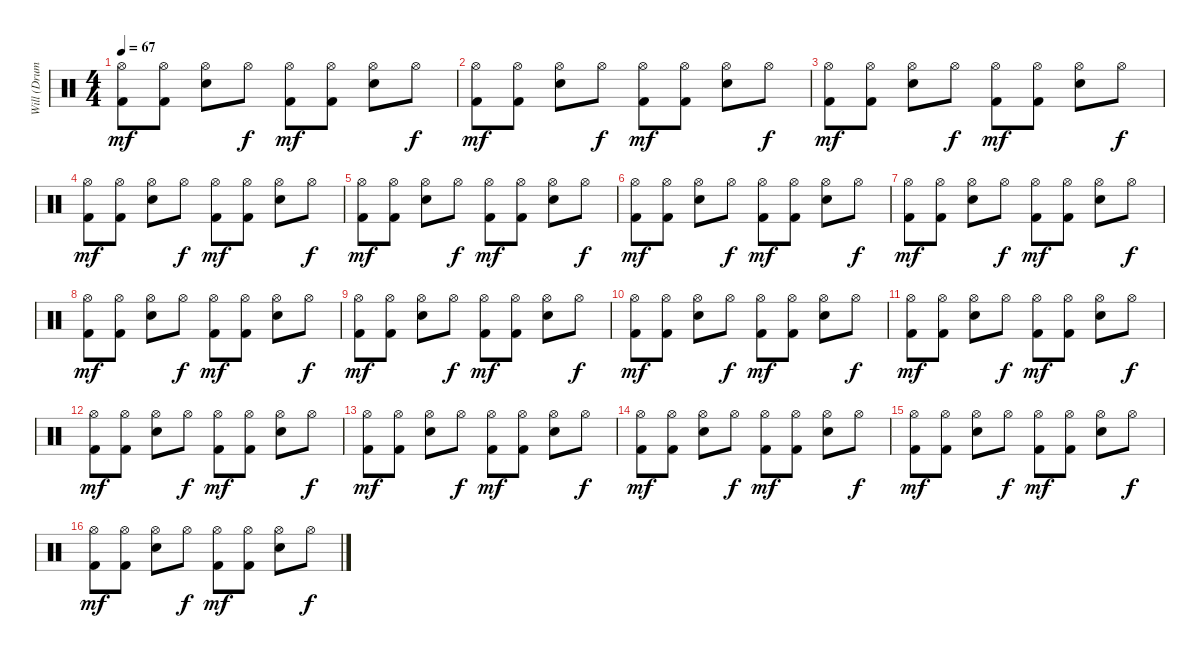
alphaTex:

\track ("Will (Drums)" "Will (Drum") {instrument percussion}
\staff {score}
\articulation defaults
\ts (4 4)
\tempo 67
\clef neutral
\ks c
("Kick (hit) 2" "Hi-Hat (open)").8{dy mf} ("Kick (hit) 2" "Hi-Hat (open)").8 ("Snare (hit) 2" "Hi-Hat (open)").8 "Hi-Hat (open)".8{dy f} ("Kick (hit) 2" "Hi-Hat (open)").8{dy mf} ("Kick (hit) 2" "Hi-Hat (open)").8 ("Snare (hit) 2" "Hi-Hat (open)").8 "Hi-Hat (open)".8{dy f} |
("Kick (hit) 2" "Hi-Hat (open)").8{dy mf} ("Kick (hit) 2" "Hi-Hat (open)").8 ("Snare (hit) 2" "Hi-Hat (open)").8 "Hi-Hat (open)".8{dy f} ("Kick (hit) 2" "Hi-Hat (open)").8{dy mf} ("Kick (hit) 2" "Hi-Hat (open)").8 ("Snare (hit) 2" "Hi-Hat (open)").8 "Hi-Hat (open)".8{dy f} |
("Kick (hit) 2" "Hi-Hat (open)").8{dy mf} ("Kick (hit) 2" "Hi-Hat (open)").8 ("Snare (hit) 2" "Hi-Hat (open)").8 "Hi-Hat (open)".8{dy f} ("Kick (hit) 2" "Hi-Hat (open)").8{dy mf} ("Kick (hit) 2" "Hi-Hat (open)").8 ("Snare (hit) 2" "Hi-Hat (open)").8 "Hi-Hat (open)".8{dy f} |
("Kick (hit) 2" "Hi-Hat (open)").8{dy mf} ("Kick (hit) 2" "Hi-Hat (open)").8 ("Snare (hit) 2" "Hi-Hat (open)").8 "Hi-Hat (open)".8{dy f} ("Kick (hit) 2" "Hi-Hat (open)").8{dy mf} ("Kick (hit) 2" "Hi-Hat (open)").8 ("Snare (hit) 2" "Hi-Hat (open)").8 "Hi-Hat (open)".8{dy f} |
("Kick (hit) 2" "Hi-Hat (open)").8{dy mf} ("Kick (hit) 2" "Hi-Hat (open)").8 ("Snare (hit) 2" "Hi-Hat (open)").8 "Hi-Hat (open)".8{dy f} ("Kick (hit) 2" "Hi-Hat (open)").8{dy mf} ("Kick (hit) 2" "Hi-Hat (open)").8 ("Snare (hit) 2" "Hi-Hat (open)").8 "Hi-Hat (open)".8{dy f} |
("Kick (hit) 2" "Hi-Hat (open)").8{dy mf} ("Kick (hit) 2" "Hi-Hat (open)").8 ("Snare (hit) 2" "Hi-Hat (open)").8 "Hi-Hat (open)".8{dy f} ("Kick (hit) 2" "Hi-Hat (open)").8{dy mf} ("Kick (hit) 2" "Hi-Hat (open)").8 ("Snare (hit) 2" "Hi-Hat (open)").8 "Hi-Hat (open)".8{dy f} |
("Kick (hit) 2" "Hi-Hat (open)").8{dy mf} ("Kick (hit) 2" "Hi-Hat (open)").8 ("Snare (hit) 2" "Hi-Hat (open)").8 "Hi-Hat (open)".8{dy f} ("Kick (hit) 2" "Hi-Hat (open)").8{dy mf} ("Kick (hit) 2" "Hi-Hat (open)").8 ("Snare (hit) 2" "Hi-Hat (open)").8 "Hi-Hat (open)".8{dy f} |
("Kick (hit) 2" "Hi-Hat (open)").8{dy mf} ("Kick (hit) 2" "Hi-Hat (open)").8 ("Snare (hit) 2" "Hi-Hat (open)").8 "Hi-Hat (open)".8{dy f} ("Kick (hit) 2" "Hi-Hat (open)").8{dy mf} ("Kick (hit) 2" "Hi-Hat (open)").8 ("Snare (hit) 2" "Hi-Hat (open)").8 "Hi-Hat (open)".8{dy f} |
("Kick (hit) 2" "Hi-Hat (open)").8{dy mf} ("Kick (hit) 2" "Hi-Hat (open)").8 ("Snare (hit) 2" "Hi-Hat (open)").8 "Hi-Hat (open)".8{dy f} ("Kick (hit) 2" "Hi-Hat (open)").8{dy mf} ("Kick (hit) 2" "Hi-Hat (open)").8 ("Snare (hit) 2" "Hi-Hat (open)").8 "Hi-Hat (open)".8{dy f} |
("Kick (hit) 2" "Hi-Hat (open)").8{dy mf} ("Kick (hit) 2" "Hi-Hat (open)").8 ("Snare (hit) 2" "Hi-Hat (open)").8 "Hi-Hat (open)".8{dy f} ("Kick (hit) 2" "Hi-Hat (open)").8{dy mf} ("Kick (hit) 2" "Hi-Hat (open)").8 ("Snare (hit) 2" "Hi-Hat (open)").8 "Hi-Hat (open)".8{dy f} |
("Kick (hit) 2" "Hi-Hat (open)").8{dy mf} ("Kick (hit) 2" "Hi-Hat (open)").8 ("Snare (hit) 2" "Hi-Hat (open)").8 "Hi-Hat (open)".8{dy f} ("Kick (hit) 2" "Hi-Hat (open)").8{dy mf} ("Kick (hit) 2" "Hi-Hat (open)").8 ("Snare (hit) 2" "Hi-Hat (open)").8 "Hi-Hat (open)".8{dy f} |
("Kick (hit) 2" "Hi-Hat (open)").8{dy mf} ("Kick (hit) 2" "Hi-Hat (open)").8 ("Snare (hit) 2" "Hi-Hat (open)").8 "Hi-Hat (open)".8{dy f} ("Kick (hit) 2" "Hi-Hat (open)").8{dy mf} ("Kick (hit) 2" "Hi-Hat (open)").8 ("Snare (hit) 2" "Hi-Hat (open)").8 "Hi-Hat (open)".8{dy f} |
("Kick (hit) 2" "Hi-Hat (open)").8{dy mf} ("Kick (hit) 2" "Hi-Hat (open)").8 ("Snare (hit) 2" "Hi-Hat (open)").8 "Hi-Hat (open)".8{dy f} ("Kick (hit) 2" "Hi-Hat (open)").8{dy mf} ("Kick (hit) 2" "Hi-Hat (open)").8 ("Snare (hit) 2" "Hi-Hat (open)").8 "Hi-Hat (open)".8{dy f} |
("Kick (hit) 2" "Hi-Hat (open)").8{dy mf} ("Kick (hit) 2" "Hi-Hat (open)").8 ("Snare (hit) 2" "Hi-Hat (open)").8 "Hi-Hat (open)".8{dy f} ("Kick (hit) 2" "Hi-Hat (open)").8{dy mf} ("Kick (hit) 2" "Hi-Hat (open)").8 ("Snare (hit) 2" "Hi-Hat (open)").8 "Hi-Hat (open)".8{dy f} |
("Kick (hit) 2" "Hi-Hat (open)").8{dy mf} ("Kick (hit) 2" "Hi-Hat (open)").8 ("Snare (hit) 2" "Hi-Hat (open)").8 "Hi-Hat (open)".8{dy f} ("Kick (hit) 2" "Hi-Hat (open)").8{dy mf} ("Kick (hit) 2" "Hi-Hat (open)").8 ("Snare (hit) 2" "Hi-Hat (open)").8 "Hi-Hat (open)".8{dy f} |
("Kick (hit) 2" "Hi-Hat (open)").8{dy mf} ("Kick (hit) 2" "Hi-Hat (open)").8 ("Snare (hit) 2" "Hi-Hat (open)").8 "Hi-Hat (open)".8{dy f} ("Kick (hit) 2" "Hi-Hat (open)").8{dy mf} ("Kick (hit) 2" "Hi-Hat (open)").8 ("Snare (hit) 2" "Hi-Hat (open)").8 "Hi-Hat (open)".8{dy f}
